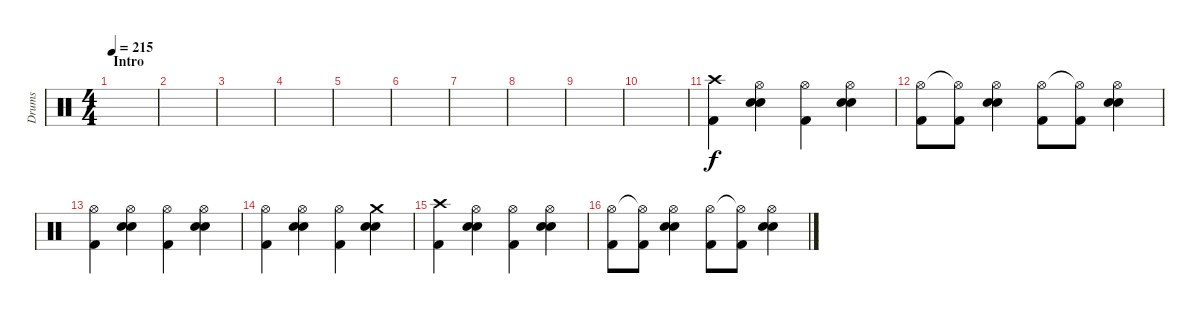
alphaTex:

\track ("Drums" "Drums") {instrument percussion}
\staff {score}
\articulation defaults
\ts (4 4)
\section ("" "Intro")
\tempo 215
\clef neutral
\ks c
|
|
|
|
|
|
|
|
|
|
("Crash high (hit)" "Kick (hit) 2").4 ("Hi-Hat (open)" "Electric Snare (hit)" "Electric Snare (hit)").4 ("Hi-Hat (open)" "Kick (hit) 2").4 ("Hi-Hat (open)" "Electric Snare (hit)" "Electric Snare (hit)").4 |
("Hi-Hat (open)" "Kick (hit) 2").8 ("Hi-Hat (open)"{t} "Kick (hit) 2").8 ("Hi-Hat (open)" "Electric Snare (hit)" "Electric Snare (hit)").4 ("Hi-Hat (open)" "Kick (hit) 2").8 ("Hi-Hat (open)"{t} "Kick (hit) 2").8 ("Hi-Hat (open)" "Electric Snare (hit)" "Electric Snare (hit)").4 |
("Hi-Hat (open)" "Kick (hit) 2").4 ("Hi-Hat (open)" "Electric Snare (hit)" "Electric Snare (hit)").4 ("Hi-Hat (open)" "Kick (hit) 2").4 ("Hi-Hat (open)" "Electric Snare (hit)" "Electric Snare (hit)").4 |
("Hi-Hat (open)" "Kick (hit) 2").4 ("Hi-Hat (open)" "Electric Snare (hit)" "Electric Snare (hit)").4 ("Hi-Hat (open)" "Kick (hit) 2").4 ("Crash medium (hit)" "Electric Snare (hit)" "Electric Snare (hit)").4 |
("Crash high (hit)" "Kick (hit) 2").4 ("Hi-Hat (open)" "Electric Snare (hit)" "Electric Snare (hit)").4 ("Hi-Hat (open)" "Kick (hit) 2").4 ("Hi-Hat (open)" "Electric Snare (hit)" "Electric Snare (hit)").4 |
("Hi-Hat (open)" "Kick (hit) 2").8 ("Hi-Hat (open)"{t} "Kick (hit) 2").8 ("Hi-Hat (open)" "Electric Snare (hit)" "Electric Snare (hit)").4 ("Hi-Hat (open)" "Kick (hit) 2").8 ("Hi-Hat (open)"{t} "Kick (hit) 2").8 ("Hi-Hat (open)" "Electric Snare (hit)" "Electric Snare (hit)").4
